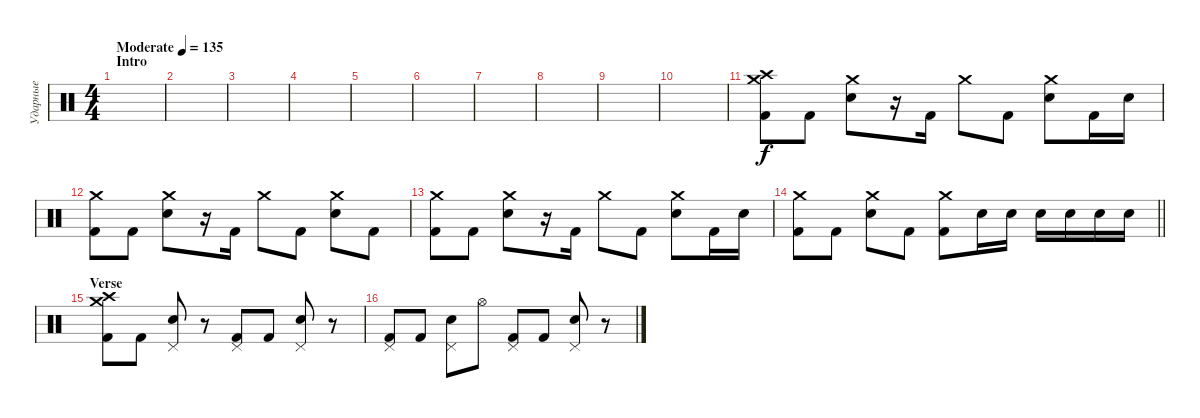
\track ("Ударные" "Ударные") {instrument percussion}
\staff {score}
\articulation defaults
\ts (4 4)
\section ("" "Intro")
\tempo (135 "Moderate")
\clef neutral
\ks c
|
|
|
|
|
|
|
|
|
|
("Crash high (hit)" "Crash medium (hit)" "Kick (hit) 2").8 "Kick (hit) 2".8 ("Crash medium (hit)" "Electric Snare (hit)").8 r.16 "Kick (hit) 2".16 "Crash medium (hit)".8 "Kick (hit) 2".8 ("Crash medium (hit)" "Electric Snare (hit)").8 "Kick (hit) 2".16 "Electric Snare (hit)".16 |
("Crash medium (hit)" "Kick (hit) 2").8 "Kick (hit) 2".8 ("Crash medium (hit)" "Electric Snare (hit)").8 r.16 "Kick (hit) 2".16 "Crash medium (hit)".8 "Kick (hit) 2".8 ("Crash medium (hit)" "Electric Snare (hit)").8 "Kick (hit) 2".8 |
("Crash medium (hit)" "Kick (hit) 2").8 "Kick (hit) 2".8 ("Crash medium (hit)" "Electric Snare (hit)").8 r.16 "Kick (hit) 2".16 "Crash medium (hit)".8 "Kick (hit) 2".8 ("Crash medium (hit)" "Electric Snare (hit)").8 "Kick (hit) 2".16 "Electric Snare (hit)".16 |
\barLineRight lightlight
("Crash medium (hit)" "Kick (hit) 2").8 "Kick (hit) 2".8 ("Crash medium (hit)" "Electric Snare (hit)").8 "Kick (hit) 2".8 ("Crash medium (hit)" "Kick (hit) 2").8 "Electric Snare (hit)".16 "Electric Snare (hit)".16 "Electric Snare (hit)".16 "Electric Snare (hit)".16 "Electric Snare (hit)".16 "Electric Snare (hit)".16 |
\section ("" "Verse")
("Crash high (hit)" "Crash medium (hit)" "Kick (hit) 2").8 "Kick (hit) 2".8 ("Pedal Hi-Hat (hit)" "Electric Snare (hit)").8 r.8 ("Pedal Hi-Hat (hit)" "Kick (hit) 2").8 "Kick (hit) 2".8 ("Pedal Hi-Hat (hit)" "Electric Snare (hit)").8 r.8 |
("Pedal Hi-Hat (hit)" "Kick (hit) 2").8 "Kick (hit) 2".8 ("Pedal Hi-Hat (hit)" "Electric Snare (hit)").8 "Hi-Hat (open)".8 ("Pedal Hi-Hat (hit)" "Kick (hit) 2").8 "Kick (hit) 2".8 ("Pedal Hi-Hat (hit)" "Electric Snare (hit)").8 r.8
